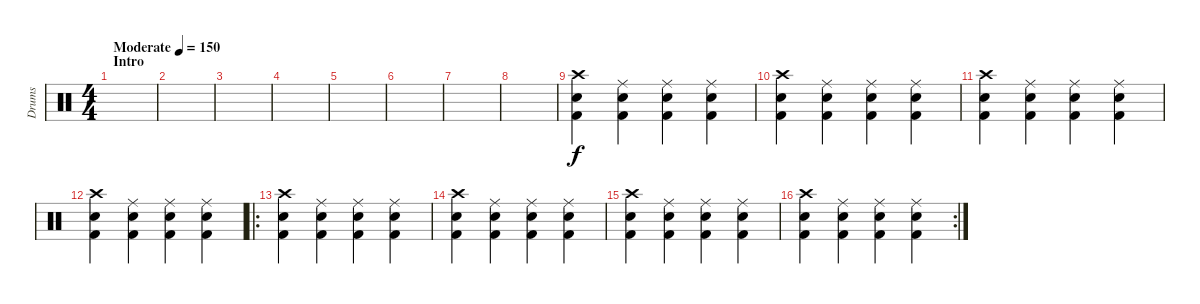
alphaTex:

\track ("Drums" "Drums") {instrument percussion}
\staff {score}
\articulation defaults
\ts (4 4)
\section ("" "Intro")
\tempo (150 "Moderate")
\clef neutral
\ks c
|
|
|
|
|
|
|
|
("Crash high (hit)" "Snare (hit) 2" "Kick (hit) 2").4 ("Ride (middle)" "Snare (hit) 2" "Kick (hit) 2").4 ("Ride (middle)" "Snare (hit) 2" "Kick (hit) 2").4 ("Ride (middle)" "Snare (hit) 2" "Kick (hit) 2").4 |
("Crash high (hit)" "Snare (hit) 2" "Kick (hit) 2").4 ("Ride (middle)" "Snare (hit) 2" "Kick (hit) 2").4 ("Ride (middle)" "Snare (hit) 2" "Kick (hit) 2").4 ("Ride (middle)" "Snare (hit) 2" "Kick (hit) 2").4 |
("Crash high (hit)" "Snare (hit) 2" "Kick (hit) 2").4 ("Ride (middle)" "Snare (hit) 2" "Kick (hit) 2").4 ("Ride (middle)" "Snare (hit) 2" "Kick (hit) 2").4 ("Ride (middle)" "Snare (hit) 2" "Kick (hit) 2").4 |
("Crash high (hit)" "Snare (hit) 2" "Kick (hit) 2").4 ("Ride (middle)" "Snare (hit) 2" "Kick (hit) 2").4 ("Ride (middle)" "Snare (hit) 2" "Kick (hit) 2").4 ("Ride (middle)" "Snare (hit) 2" "Kick (hit) 2").4 |
\ro
("Crash high (hit)" "Snare (hit) 2" "Kick (hit) 2").4 ("Ride (middle)" "Snare (hit) 2" "Kick (hit) 2").4 ("Ride (middle)" "Snare (hit) 2" "Kick (hit) 2").4 ("Ride (middle)" "Snare (hit) 2" "Kick (hit) 2").4 |
("Crash high (hit)" "Snare (hit) 2" "Kick (hit) 2").4 ("Ride (middle)" "Snare (hit) 2" "Kick (hit) 2").4 ("Ride (middle)" "Snare (hit) 2" "Kick (hit) 2").4 ("Ride (middle)" "Snare (hit) 2" "Kick (hit) 2").4 |
("Crash high (hit)" "Snare (hit) 2" "Kick (hit) 2").4 ("Ride (middle)" "Snare (hit) 2" "Kick (hit) 2").4 ("Ride (middle)" "Snare (hit) 2" "Kick (hit) 2").4 ("Ride (middle)" "Snare (hit) 2" "Kick (hit) 2").4 |
\rc 2
("Crash high (hit)" "Snare (hit) 2" "Kick (hit) 2").4 ("Ride (middle)" "Snare (hit) 2" "Kick (hit) 2").4 ("Ride (middle)" "Snare (hit) 2" "Kick (hit) 2").4 ("Ride (middle)" "Snare (hit) 2" "Kick (hit) 2").4
